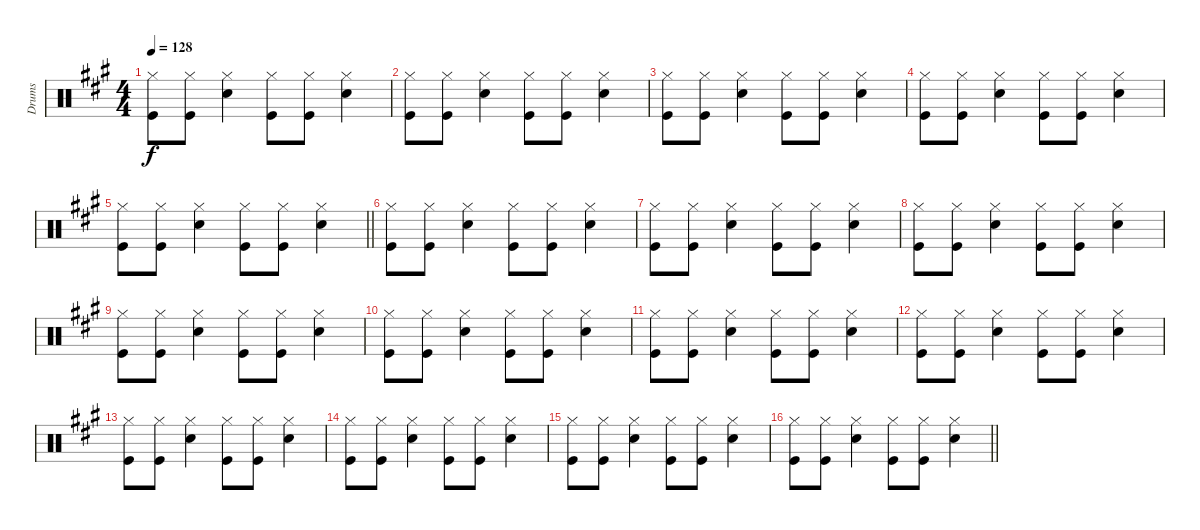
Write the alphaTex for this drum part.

\track ("Drums" "Drums") {instrument percussion}
\staff {score}
\articulation defaults
\ts (4 4)
\tempo 128
\clef neutral
\ks a
("Hi-Hat (closed)" "Kick (hit)").8{dy f} ("Hi-Hat (closed)" "Kick (hit)").8 ("Hi-Hat (closed)" "Snare (hit) 2").4 ("Hi-Hat (closed)" "Kick (hit)").8 ("Hi-Hat (closed)" "Kick (hit)").8 ("Hi-Hat (closed)" "Snare (hit) 2").4 |
("Hi-Hat (closed)" "Kick (hit)").8 ("Hi-Hat (closed)" "Kick (hit)").8 ("Hi-Hat (closed)" "Snare (hit) 2").4 ("Hi-Hat (closed)" "Kick (hit)").8 ("Hi-Hat (closed)" "Kick (hit)").8 ("Hi-Hat (closed)" "Snare (hit) 2").4 |
("Hi-Hat (closed)" "Kick (hit)").8 ("Hi-Hat (closed)" "Kick (hit)").8 ("Hi-Hat (closed)" "Snare (hit) 2").4 ("Hi-Hat (closed)" "Kick (hit)").8 ("Hi-Hat (closed)" "Kick (hit)").8 ("Hi-Hat (closed)" "Snare (hit) 2").4 |
("Hi-Hat (closed)" "Kick (hit)").8 ("Hi-Hat (closed)" "Kick (hit)").8 ("Hi-Hat (closed)" "Snare (hit) 2").4 ("Hi-Hat (closed)" "Kick (hit)").8 ("Hi-Hat (closed)" "Kick (hit)").8 ("Hi-Hat (closed)" "Snare (hit) 2").4 |
\barLineRight lightlight
("Hi-Hat (closed)" "Kick (hit)").8 ("Hi-Hat (closed)" "Kick (hit)").8 ("Hi-Hat (closed)" "Snare (hit) 2").4 ("Hi-Hat (closed)" "Kick (hit)").8 ("Hi-Hat (closed)" "Kick (hit)").8 ("Hi-Hat (closed)" "Snare (hit) 2").4 |
("Hi-Hat (closed)" "Kick (hit)").8 ("Hi-Hat (closed)" "Kick (hit)").8 ("Hi-Hat (closed)" "Snare (hit) 2").4 ("Hi-Hat (closed)" "Kick (hit)").8 ("Hi-Hat (closed)" "Kick (hit)").8 ("Hi-Hat (closed)" "Snare (hit) 2").4 |
("Hi-Hat (closed)" "Kick (hit)").8 ("Hi-Hat (closed)" "Kick (hit)").8 ("Hi-Hat (closed)" "Snare (hit) 2").4 ("Hi-Hat (closed)" "Kick (hit)").8 ("Hi-Hat (closed)" "Kick (hit)").8 ("Hi-Hat (closed)" "Snare (hit) 2").4 |
("Hi-Hat (closed)" "Kick (hit)").8 ("Hi-Hat (closed)" "Kick (hit)").8 ("Hi-Hat (closed)" "Snare (hit) 2").4 ("Hi-Hat (closed)" "Kick (hit)").8 ("Hi-Hat (closed)" "Kick (hit)").8 ("Hi-Hat (closed)" "Snare (hit) 2").4 |
("Hi-Hat (closed)" "Kick (hit)").8 ("Hi-Hat (closed)" "Kick (hit)").8 ("Hi-Hat (closed)" "Snare (hit) 2").4 ("Hi-Hat (closed)" "Kick (hit)").8 ("Hi-Hat (closed)" "Kick (hit)").8 ("Hi-Hat (closed)" "Snare (hit) 2").4 |
("Hi-Hat (closed)" "Kick (hit)").8 ("Hi-Hat (closed)" "Kick (hit)").8 ("Hi-Hat (closed)" "Snare (hit) 2").4 ("Hi-Hat (closed)" "Kick (hit)").8 ("Hi-Hat (closed)" "Kick (hit)").8 ("Hi-Hat (closed)" "Snare (hit) 2").4 |
("Hi-Hat (closed)" "Kick (hit)").8 ("Hi-Hat (closed)" "Kick (hit)").8 ("Hi-Hat (closed)" "Snare (hit) 2").4 ("Hi-Hat (closed)" "Kick (hit)").8 ("Hi-Hat (closed)" "Kick (hit)").8 ("Hi-Hat (closed)" "Snare (hit) 2").4 |
("Hi-Hat (closed)" "Kick (hit)").8 ("Hi-Hat (closed)" "Kick (hit)").8 ("Hi-Hat (closed)" "Snare (hit) 2").4 ("Hi-Hat (closed)" "Kick (hit)").8 ("Hi-Hat (closed)" "Kick (hit)").8 ("Hi-Hat (closed)" "Snare (hit) 2").4 |
("Hi-Hat (closed)" "Kick (hit)").8 ("Hi-Hat (closed)" "Kick (hit)").8 ("Hi-Hat (closed)" "Snare (hit) 2").4 ("Hi-Hat (closed)" "Kick (hit)").8 ("Hi-Hat (closed)" "Kick (hit)").8 ("Hi-Hat (closed)" "Snare (hit) 2").4 |
("Hi-Hat (closed)" "Kick (hit)").8 ("Hi-Hat (closed)" "Kick (hit)").8 ("Hi-Hat (closed)" "Snare (hit) 2").4 ("Hi-Hat (closed)" "Kick (hit)").8 ("Hi-Hat (closed)" "Kick (hit)").8 ("Hi-Hat (closed)" "Snare (hit) 2").4 |
("Hi-Hat (closed)" "Kick (hit)").8 ("Hi-Hat (closed)" "Kick (hit)").8 ("Hi-Hat (closed)" "Snare (hit) 2").4 ("Hi-Hat (closed)" "Kick (hit)").8 ("Hi-Hat (closed)" "Kick (hit)").8 ("Hi-Hat (closed)" "Snare (hit) 2").4 |
\barLineRight lightlight
("Hi-Hat (closed)" "Kick (hit)").8 ("Hi-Hat (closed)" "Kick (hit)").8 ("Hi-Hat (closed)" "Snare (hit) 2").4 ("Hi-Hat (closed)" "Kick (hit)").8 ("Hi-Hat (closed)" "Kick (hit)").8 ("Hi-Hat (closed)" "Snare (hit) 2").4
